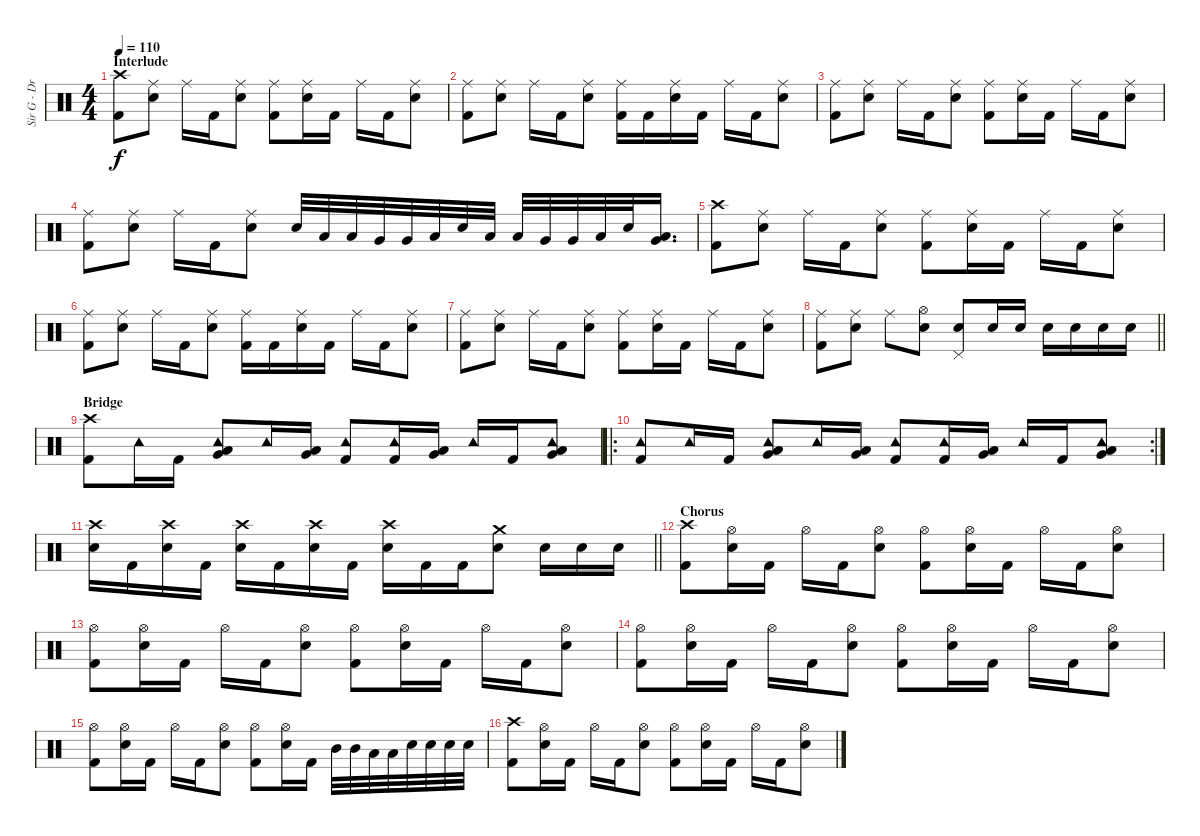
\track ("Sir G - Drums" "Sir G - Dr") {instrument percussion}
\staff {score}
\articulation defaults
\ts (4 4)
\section ("" "Interlude")
\tempo 110
\clef neutral
\ks c
("Crash high (hit)" "Kick (hit) 2").8{dy f} ("Ride (middle)" "Electric Snare (hit)").8 "Ride (middle)".16 "Kick (hit) 2".16 ("Ride (middle)" "Electric Snare (hit)").8 ("Ride (middle)" "Kick (hit) 2").8 ("Ride (middle)" "Electric Snare (hit)").16 "Kick (hit) 2".16 "Ride (middle)".16 "Kick (hit) 2".16 ("Ride (middle)" "Electric Snare (hit)").8 |
("Ride (middle)" "Kick (hit) 2").8 ("Ride (middle)" "Electric Snare (hit)").8 "Ride (middle)".16 "Kick (hit) 2".16 ("Ride (middle)" "Electric Snare (hit)").8 ("Ride (middle)" "Kick (hit) 2").16 "Kick (hit) 2".16 ("Ride (middle)" "Electric Snare (hit)").16 "Kick (hit) 2".16 "Ride (middle)".16 "Kick (hit) 2".16 ("Ride (middle)" "Electric Snare (hit)").8 |
("Ride (middle)" "Kick (hit) 2").8 ("Ride (middle)" "Electric Snare (hit)").8 "Ride (middle)".16 "Kick (hit) 2".16 ("Ride (middle)" "Electric Snare (hit)").8 ("Ride (middle)" "Kick (hit) 2").8 ("Ride (middle)" "Electric Snare (hit)").16 "Kick (hit) 2".16 "Ride (middle)".16 "Kick (hit) 2".16 ("Ride (middle)" "Electric Snare (hit)").8 |
("Ride (middle)" "Kick (hit) 2").8 ("Ride (middle)" "Electric Snare (hit)").8 "Ride (middle)".16 "Kick (hit) 2".16 ("Ride (middle)" "Electric Snare (hit)").8 "Electric Snare (hit)".32 "Low Tom (hit)".32 "Low Tom (hit)".32 "Very Low Tom (hit)".32 "Very Low Tom (hit)".32 "Low Floor Tom (hit)".32 "Electric Snare (hit)".32 "Low Tom (hit)".32 "Low Tom (hit)".32 "Very Low Tom (hit)".32 "Very Low Tom (hit)".32 "Low Floor Tom (hit)".32 "Electric Snare (hit)".32 ("Low Tom (hit)" "Very Low Tom (hit)").16{d} |
("Crash high (hit)" "Kick (hit) 2").8 ("Ride (middle)" "Electric Snare (hit)").8 "Ride (middle)".16 "Kick (hit) 2".16 ("Ride (middle)" "Electric Snare (hit)").8 ("Ride (middle)" "Kick (hit) 2").8 ("Ride (middle)" "Electric Snare (hit)").16 "Kick (hit) 2".16 "Ride (middle)".16 "Kick (hit) 2".16 ("Ride (middle)" "Electric Snare (hit)").8 |
("Ride (middle)" "Kick (hit) 2").8 ("Ride (middle)" "Electric Snare (hit)").8 "Ride (middle)".16 "Kick (hit) 2".16 ("Ride (middle)" "Electric Snare (hit)").8 ("Ride (middle)" "Kick (hit) 2").16 "Kick (hit) 2".16 ("Ride (middle)" "Electric Snare (hit)").16 "Kick (hit) 2".16 "Ride (middle)".16 "Kick (hit) 2".16 ("Ride (middle)" "Electric Snare (hit)").8 |
("Ride (middle)" "Kick (hit) 2").8 ("Ride (middle)" "Electric Snare (hit)").8 "Ride (middle)".16 "Kick (hit) 2".16 ("Ride (middle)" "Electric Snare (hit)").8 ("Ride (middle)" "Kick (hit) 2").8 ("Ride (middle)" "Electric Snare (hit)").16 "Kick (hit) 2".16 "Ride (middle)".16 "Kick (hit) 2".16 ("Ride (middle)" "Electric Snare (hit)").8 |
\barLineRight lightlight
("Ride (middle)" "Kick (hit) 2").8 ("Ride (middle)" "Electric Snare (hit)").8 "Ride (middle)".8 ("Hi-Hat (open)" "Electric Snare (hit)").8 ("Pedal Hi-Hat (hit)" "Electric Snare (hit)").8 "Electric Snare (hit)".16 "Electric Snare (hit)".16 "Electric Snare (hit)".16 "Electric Snare (hit)".16 "Electric Snare (hit)".16 "Electric Snare (hit)".16 |
\section ("" "Bridge")
("Crash high (hit)" "Kick (hit) 2").8 "Tambourine (hit)".16 "Kick (hit) 2".16 ("Tambourine (hit)" "Very Low Tom (hit)" "Low Floor Tom (hit)").8 "Tambourine (hit)".16 ("Very Low Tom (hit)" "Low Floor Tom (hit)").16 ("Tambourine (hit)" "Kick (hit) 2").8 ("Tambourine (hit)" "Kick (hit) 2").16 ("Very Low Tom (hit)" "Low Floor Tom (hit)").16 "Tambourine (hit)".16 "Kick (hit) 2".16 ("Tambourine (hit)" "Very Low Tom (hit)" "Low Floor Tom (hit)").8 |
\ro
\rc 2
("Tambourine (hit)" "Kick (hit) 2").8 "Tambourine (hit)".16 "Kick (hit) 2".16 ("Tambourine (hit)" "Very Low Tom (hit)" "Low Floor Tom (hit)").8 "Tambourine (hit)".16 ("Very Low Tom (hit)" "Low Floor Tom (hit)").16 ("Tambourine (hit)" "Kick (hit) 2").8 ("Tambourine (hit)" "Kick (hit) 2").16 ("Very Low Tom (hit)" "Low Floor Tom (hit)").16 "Tambourine (hit)".16 "Kick (hit) 2".16 ("Tambourine (hit)" "Very Low Tom (hit)" "Low Floor Tom (hit)").8 |
\barLineRight lightlight
("Crash high (hit)" "Electric Snare (hit)").16 "Kick (hit) 2".16 ("Crash high (hit)" "Electric Snare (hit)").16 "Kick (hit) 2".16 ("Crash high (hit)" "Electric Snare (hit)").16 "Kick (hit) 2".16 ("Crash high (hit)" "Electric Snare (hit)").16 "Kick (hit) 2".16 ("Crash high (hit)" "Electric Snare (hit)").16 "Kick (hit) 2".16 "Kick (hit) 2".16 ("Crash medium (hit)" "Electric Snare (hit)").8 "Electric Snare (hit)".16 "Electric Snare (hit)".16 "Electric Snare (hit)".16 |
\section ("" "Chorus")
("Crash high (hit)" "Kick (hit) 2").8 ("Hi-Hat (open)" "Electric Snare (hit)").16 "Kick (hit) 2".16 "Hi-Hat (open)".16 "Kick (hit) 2".16 ("Hi-Hat (open)" "Electric Snare (hit)").8 ("Hi-Hat (open)" "Kick (hit) 2").8 ("Hi-Hat (open)" "Electric Snare (hit)").16 "Kick (hit) 2".16 "Hi-Hat (open)".16 "Kick (hit) 2".16 ("Hi-Hat (open)" "Electric Snare (hit)").8 |
("Hi-Hat (open)" "Kick (hit) 2").8 ("Hi-Hat (open)" "Electric Snare (hit)").16 "Kick (hit) 2".16 "Hi-Hat (open)".16 "Kick (hit) 2".16 ("Hi-Hat (open)" "Electric Snare (hit)").8 ("Hi-Hat (open)" "Kick (hit) 2").8 ("Hi-Hat (open)" "Electric Snare (hit)").16 "Kick (hit) 2".16 "Hi-Hat (open)".16 "Kick (hit) 2".16 ("Hi-Hat (open)" "Electric Snare (hit)").8 |
("Hi-Hat (open)" "Kick (hit) 2").8 ("Hi-Hat (open)" "Electric Snare (hit)").16 "Kick (hit) 2".16 "Hi-Hat (open)".16 "Kick (hit) 2".16 ("Hi-Hat (open)" "Electric Snare (hit)").8 ("Hi-Hat (open)" "Kick (hit) 2").8 ("Hi-Hat (open)" "Electric Snare (hit)").16 "Kick (hit) 2".16 "Hi-Hat (open)".16 "Kick (hit) 2".16 ("Hi-Hat (open)" "Electric Snare (hit)").8 |
("Hi-Hat (open)" "Kick (hit) 2").8 ("Hi-Hat (open)" "Electric Snare (hit)").16 "Kick (hit) 2".16 "Hi-Hat (open)".16 "Kick (hit) 2".16 ("Hi-Hat (open)" "Electric Snare (hit)").8 ("Hi-Hat (open)" "Kick (hit) 2").8 ("Hi-Hat (open)" "Electric Snare (hit)").16 "Kick (hit) 2".16 "Mid Tom (hit)".32 "Mid Tom (hit)".32 "Low Tom (hit)".32 "Low Tom (hit)".32 "Electric Snare (hit)".32 "Electric Snare (hit)".32 "Electric Snare (hit)".32 "Electric Snare (hit)".32 |
("Crash high (hit)" "Kick (hit) 2").8 ("Hi-Hat (open)" "Electric Snare (hit)").16 "Kick (hit) 2".16 "Hi-Hat (open)".16 "Kick (hit) 2".16 ("Hi-Hat (open)" "Electric Snare (hit)").8 ("Hi-Hat (open)" "Kick (hit) 2").8 ("Hi-Hat (open)" "Electric Snare (hit)").16 "Kick (hit) 2".16 "Hi-Hat (open)".16 "Kick (hit) 2".16 ("Hi-Hat (open)" "Electric Snare (hit)").8
